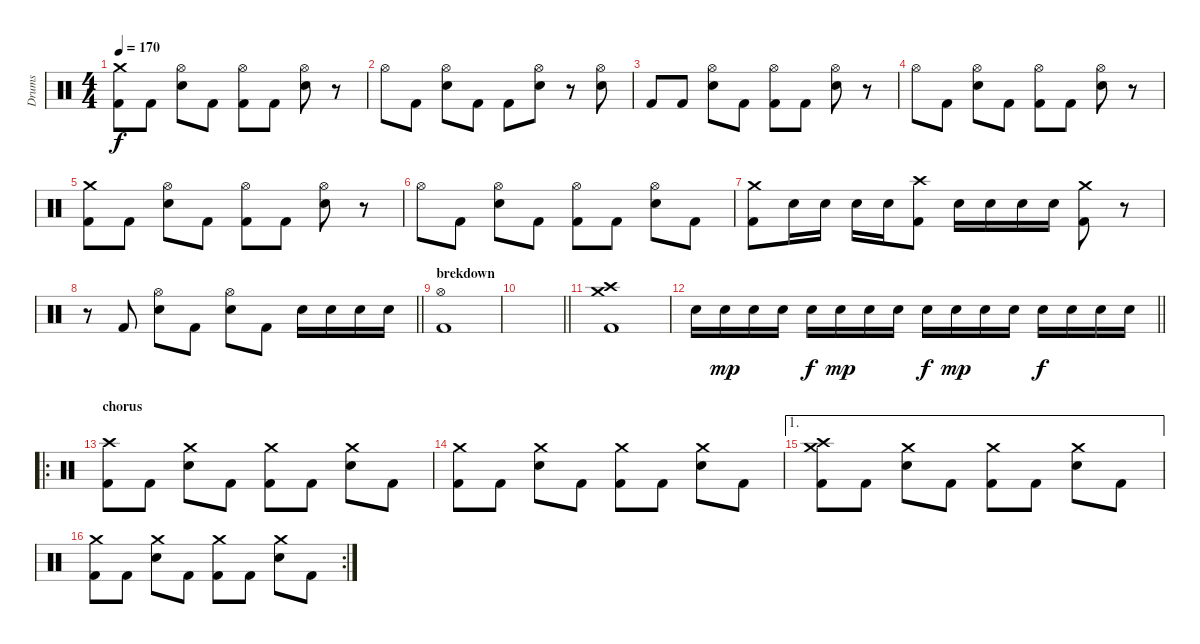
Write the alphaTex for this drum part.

\track ("Drums" "Drums") {instrument percussion}
\staff {score}
\articulation defaults
\ts (4 4)
\section ("" "")
\tempo 170
\clef neutral
\ks c
("Crash medium (hit)" "Kick (hit) 2").8{dy f} "Kick (hit) 2".8 ("Hi-Hat (open)" "Electric Snare (hit)").8 "Kick (hit) 2".8 ("Hi-Hat (open)" "Kick (hit) 2").8 "Kick (hit) 2".8 ("Hi-Hat (open)" "Electric Snare (hit)").8 r.8 |
"Hi-Hat (open)".8 "Kick (hit) 2".8 ("Hi-Hat (open)" "Electric Snare (hit)").8 "Kick (hit) 2".8 "Kick (hit) 2".8 ("Hi-Hat (open)" "Electric Snare (hit)").8 r.8 ("Hi-Hat (open)" "Electric Snare (hit)").8 |
"Kick (hit) 2".8 "Kick (hit) 2".8 ("Hi-Hat (open)" "Electric Snare (hit)").8 "Kick (hit) 2".8 ("Hi-Hat (open)" "Kick (hit) 2").8 "Kick (hit) 2".8 ("Hi-Hat (open)" "Electric Snare (hit)").8 r.8 |
"Hi-Hat (open)".8 "Kick (hit) 2".8 ("Hi-Hat (open)" "Electric Snare (hit)").8 "Kick (hit) 2".8 ("Hi-Hat (open)" "Kick (hit) 2").8 "Kick (hit) 2".8 ("Hi-Hat (open)" "Electric Snare (hit)").8 r.8 |
("Crash medium (hit)" "Kick (hit) 2").8 "Kick (hit) 2".8 ("Hi-Hat (open)" "Electric Snare (hit)").8 "Kick (hit) 2".8 ("Hi-Hat (open)" "Kick (hit) 2").8 "Kick (hit) 2".8 ("Hi-Hat (open)" "Electric Snare (hit)").8 r.8 |
"Hi-Hat (open)".8 "Kick (hit) 2".8 ("Hi-Hat (open)" "Electric Snare (hit)").8 "Kick (hit) 2".8 ("Hi-Hat (open)" "Kick (hit) 2").8 "Kick (hit) 2".8 ("Hi-Hat (open)" "Electric Snare (hit)").8 "Kick (hit) 2".8 |
("Crash medium (hit)" "Kick (hit) 2").8 "Electric Snare (hit)".16 "Electric Snare (hit)".16 "Electric Snare (hit)".16 "Electric Snare (hit)".16 ("Crash high (hit)" "Kick (hit) 2").8 "Electric Snare (hit)".16 "Electric Snare (hit)".16 "Electric Snare (hit)".16 "Electric Snare (hit)".16 ("Crash medium (hit)" "Kick (hit) 2").8 r.8 |
\barLineRight lightlight
r.8 "Kick (hit) 2".8 ("Hi-Hat (open)" "Electric Snare (hit)").8 "Kick (hit) 2".8 ("Hi-Hat (open)" "Electric Snare (hit)").8 "Kick (hit) 2".8 "Electric Snare (hit)".16 "Electric Snare (hit)".16 "Electric Snare (hit)".16 "Electric Snare (hit)".16 |
\section ("" "brekdown")
("Hi-Hat (open)" "Kick (hit) 2").1 |
\barLineRight lightlight
|
("Crash high (hit)" "Crash medium (hit)" "Kick (hit) 2").1 |
\barLineRight lightlight "Electric Snare (hit)".16 "Electric Snare (hit)".16{dy mp} "Electric Snare (hit)".16 "Electric Snare (hit)".16 "Electric Snare (hit)".16{dy f} "Electric Snare (hit)".16{dy mp} "Electric Snare (hit)".16 "Electric Snare (hit)".16 "Electric Snare (hit)".16{dy f} "Electric Snare (hit)".16{dy mp} "Electric Snare (hit)".16 "Electric Snare (hit)".16 "Electric Snare (hit)".16{dy f} "Electric Snare (hit)".16 "Electric Snare (hit)".16 "Electric Snare (hit)".16
|
\ro
\section ("" "chorus")
("Crash high (hit)" "Kick (hit) 2").8 "Kick (hit) 2".8 ("Crash medium (hit)" "Electric Snare (hit)").8 "Kick (hit) 2".8 ("Crash medium (hit)" "Kick (hit) 2").8 "Kick (hit) 2".8 ("Crash medium (hit)" "Electric Snare (hit)").8 "Kick (hit) 2".8 |
("Crash medium (hit)" "Kick (hit) 2").8 "Kick (hit) 2".8 ("Crash medium (hit)" "Electric Snare (hit)").8 "Kick (hit) 2".8 ("Crash medium (hit)" "Kick (hit) 2").8 "Kick (hit) 2".8 ("Crash medium (hit)" "Electric Snare (hit)").8 "Kick (hit) 2".8 |
\ae 1
("Crash high (hit)" "Crash medium (hit)" "Kick (hit) 2").8 "Kick (hit) 2".8 ("Crash medium (hit)" "Electric Snare (hit)").8 "Kick (hit) 2".8 ("Crash medium (hit)" "Kick (hit) 2").8 "Kick (hit) 2".8 ("Crash medium (hit)" "Electric Snare (hit)").8 "Kick (hit) 2".8 |
\rc 2
("Crash medium (hit)" "Kick (hit) 2").8 "Kick (hit) 2".8 ("Crash medium (hit)" "Electric Snare (hit)").8 "Kick (hit) 2".8 ("Crash medium (hit)" "Kick (hit) 2").8 "Kick (hit) 2".8 ("Crash medium (hit)" "Electric Snare (hit)").8 "Kick (hit) 2".8
